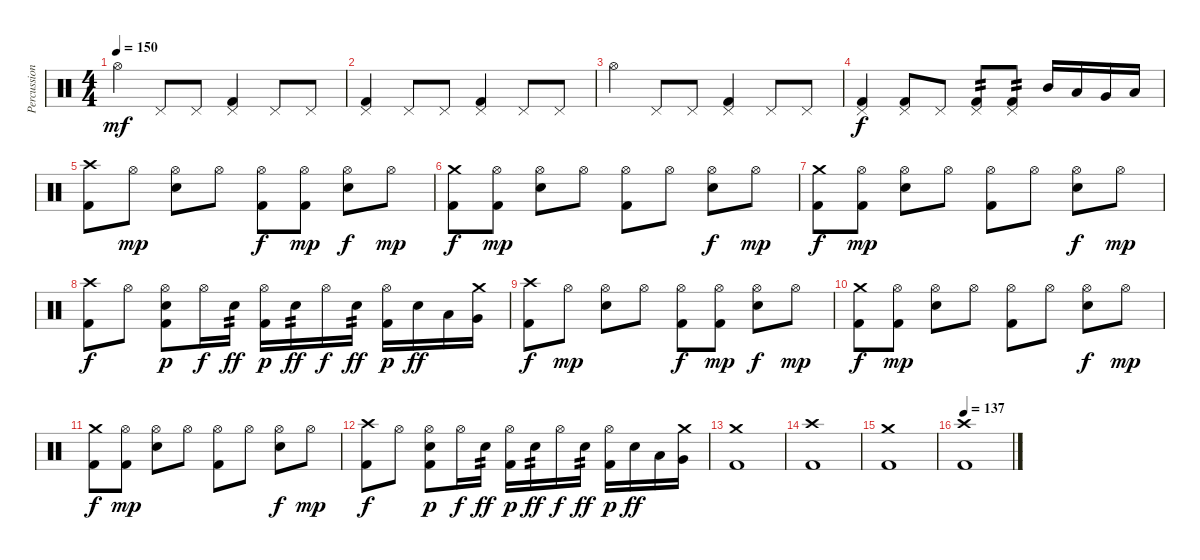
\track ("Percussion" "Percussion") {instrument percussion}
\staff {score}
\articulation defaults
\ts (4 4)
\tempo 150
\clef neutral
\ks c "Hi-Hat (open)".4{dy mf} "Pedal Hi-Hat (hit)".8 "Pedal Hi-Hat (hit)".8
("Pedal Hi-Hat (hit)" "Kick (hit) 2").4 "Pedal Hi-Hat (hit)".8 "Pedal Hi-Hat (hit)".8 |
("Pedal Hi-Hat (hit)" "Kick (hit) 2").4 "Pedal Hi-Hat (hit)".8 "Pedal Hi-Hat (hit)".8 ("Pedal Hi-Hat (hit)" "Kick (hit) 2").4 "Pedal Hi-Hat (hit)".8 "Pedal Hi-Hat (hit)".8 |
"Hi-Hat (open)".4 "Pedal Hi-Hat (hit)".8 "Pedal Hi-Hat (hit)".8 ("Pedal Hi-Hat (hit)" "Kick (hit) 2").4 "Pedal Hi-Hat (hit)".8 "Pedal Hi-Hat (hit)".8 |
("Pedal Hi-Hat (hit)" "Kick (hit) 2").4{dy f} ("Pedal Hi-Hat (hit)" "Kick (hit) 2").8 "Pedal Hi-Hat (hit)".8 ("Pedal Hi-Hat (hit)" "Kick (hit) 2").8{tp 2} ("Pedal Hi-Hat (hit)" "Kick (hit) 2").8{tp 2} "Mid Tom (hit)".16 "Low Tom (hit)".16 "Very Low Tom (hit)".16 "Low Floor Tom (hit)".16 |
("Crash high (hit)" "Kick (hit) 2").8 "Hi-Hat (open)".8{dy mp} ("Snare (hit) 2" "Hi-Hat (open)").8 "Hi-Hat (open)".8 ("Hi-Hat (open)" "Kick (hit) 2").8{dy f} ("Hi-Hat (open)" "Kick (hit) 2").8{dy mp} ("Hi-Hat (open)" "Electric Snare (hit)").8{dy f} "Hi-Hat (open)".8{dy mp} |
("Crash medium (hit)" "Kick (hit) 2").8{dy f} ("Hi-Hat (open)" "Kick (hit) 2").8{dy mp} ("Snare (hit) 2" "Hi-Hat (open)").8 "Hi-Hat (open)".8 ("Hi-Hat (open)" "Kick (hit) 2").8 "Hi-Hat (open)".8 ("Hi-Hat (open)" "Electric Snare (hit)").8{dy f} "Hi-Hat (open)".8{dy mp} |
("Crash medium (hit)" "Kick (hit) 2").8{dy f} ("Hi-Hat (open)" "Kick (hit) 2").8{dy mp} ("Snare (hit) 2" "Hi-Hat (open)").8 "Hi-Hat (open)".8 ("Hi-Hat (open)" "Kick (hit) 2").8 "Hi-Hat (open)".8 ("Hi-Hat (open)" "Electric Snare (hit)").8{dy f} "Hi-Hat (open)".8{dy mp} |
("Crash high (hit)" "Kick (hit) 2").8{dy f} "Hi-Hat (open)".8 ("Hi-Hat (open)" "Electric Snare (hit)" "Kick (hit) 2").8{dy p} "Hi-Hat (open)".16{dy f} "Electric Snare (hit)".16{tp 2 dy ff} ("Hi-Hat (open)" "Kick (hit) 2").16{dy p} "Electric Snare (hit)".16{tp 2 dy ff} "Hi-Hat (open)".16{dy f} "Electric Snare (hit)".16{tp 2 dy ff} ("Hi-Hat (open)" "Kick (hit) 2").16{dy p} "Electric Snare (hit)".16{dy ff} "Low Tom (hit)".16 ("Crash medium (hit)" "Very Low Tom (hit)").16 |
("Crash high (hit)" "Kick (hit) 2").8{dy f} "Hi-Hat (open)".8{dy mp} ("Snare (hit) 2" "Hi-Hat (open)").8 "Hi-Hat (open)".8 ("Hi-Hat (open)" "Kick (hit) 2").8{dy f} ("Hi-Hat (open)" "Kick (hit) 2").8{dy mp} ("Hi-Hat (open)" "Electric Snare (hit)").8{dy f} "Hi-Hat (open)".8{dy mp} |
("Crash medium (hit)" "Kick (hit) 2").8{dy f} ("Hi-Hat (open)" "Kick (hit) 2").8{dy mp} ("Snare (hit) 2" "Hi-Hat (open)").8 "Hi-Hat (open)".8 ("Hi-Hat (open)" "Kick (hit) 2").8 "Hi-Hat (open)".8 ("Hi-Hat (open)" "Electric Snare (hit)").8{dy f} "Hi-Hat (open)".8{dy mp} |
("Crash medium (hit)" "Kick (hit) 2").8{dy f} ("Hi-Hat (open)" "Kick (hit) 2").8{dy mp} ("Snare (hit) 2" "Hi-Hat (open)").8 "Hi-Hat (open)".8 ("Hi-Hat (open)" "Kick (hit) 2").8 "Hi-Hat (open)".8 ("Hi-Hat (open)" "Electric Snare (hit)").8{dy f} "Hi-Hat (open)".8{dy mp} |
("Crash high (hit)" "Kick (hit) 2").8{dy f} "Hi-Hat (open)".8 ("Hi-Hat (open)" "Electric Snare (hit)" "Kick (hit) 2").8{dy p} "Hi-Hat (open)".16{dy f} "Electric Snare (hit)".16{tp 2 dy ff} ("Hi-Hat (open)" "Kick (hit) 2").16{dy p} "Electric Snare (hit)".16{tp 2 dy ff} "Hi-Hat (open)".16{dy f} "Electric Snare (hit)".16{tp 2 dy ff} ("Hi-Hat (open)" "Kick (hit) 2").16{dy p} "Electric Snare (hit)".16{dy ff} "Low Tom (hit)".16 ("Crash medium (hit)" "Very Low Tom (hit)").16 |
("Crash medium (hit)" "Kick (hit) 2").1 |
("Crash high (hit)" "Kick (hit) 2").1 |
("Crash medium (hit)" "Kick (hit) 2").1 |
\tempo 137
("Crash high (hit)" "Kick (hit) 2").1
